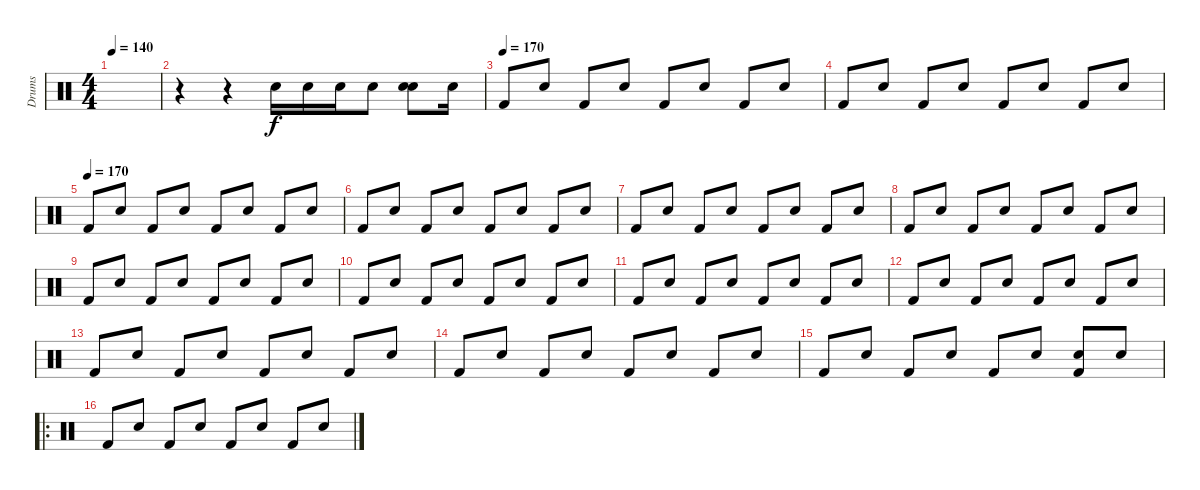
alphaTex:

\track ("Drums" "Drums") {instrument percussion}
\staff {score}
\articulation defaults
\ts (4 4)
\tempo 140
\clef neutral
\ks c
|
r.4 r.4 "Electric Snare (hit)".16 "Electric Snare (hit)".16 "Electric Snare (hit)".16 "Electric Snare (hit)".8 ("Snare (hit) 2" "Electric Snare (hit)").8 "Snare (hit) 2".16 |
\tempo (170)
"Kick (hit) 2".8 "Snare (hit) 2".8 "Kick (hit) 2".8 "Snare (hit) 2".8 "Kick (hit) 2".8 "Snare (hit) 2".8 "Kick (hit) 2".8 "Snare (hit) 2".8 |
"Kick (hit) 2".8 "Snare (hit) 2".8 "Kick (hit) 2".8 "Snare (hit) 2".8 "Kick (hit) 2".8 "Snare (hit) 2".8 "Kick (hit) 2".8 "Snare (hit) 2".8 |
\tempo (170)
"Kick (hit) 2".8 "Snare (hit) 2".8 "Kick (hit) 2".8 "Snare (hit) 2".8 "Kick (hit) 2".8 "Snare (hit) 2".8 "Kick (hit) 2".8 "Snare (hit) 2".8 |
"Kick (hit) 2".8 "Snare (hit) 2".8 "Kick (hit) 2".8 "Snare (hit) 2".8 "Kick (hit) 2".8 "Snare (hit) 2".8 "Kick (hit) 2".8 "Snare (hit) 2".8 |
"Kick (hit) 2".8 "Snare (hit) 2".8 "Kick (hit) 2".8 "Snare (hit) 2".8 "Kick (hit) 2".8 "Snare (hit) 2".8 "Kick (hit) 2".8 "Snare (hit) 2".8 |
"Kick (hit) 2".8 "Snare (hit) 2".8 "Kick (hit) 2".8 "Snare (hit) 2".8 "Kick (hit) 2".8 "Snare (hit) 2".8 "Kick (hit) 2".8 "Snare (hit) 2".8 |
"Kick (hit) 2".8 "Snare (hit) 2".8 "Kick (hit) 2".8 "Snare (hit) 2".8 "Kick (hit) 2".8 "Snare (hit) 2".8 "Kick (hit) 2".8 "Snare (hit) 2".8 |
"Kick (hit) 2".8 "Snare (hit) 2".8 "Kick (hit) 2".8 "Snare (hit) 2".8 "Kick (hit) 2".8 "Snare (hit) 2".8 "Kick (hit) 2".8 "Snare (hit) 2".8 |
"Kick (hit) 2".8 "Snare (hit) 2".8 "Kick (hit) 2".8 "Snare (hit) 2".8 "Kick (hit) 2".8 "Snare (hit) 2".8 "Kick (hit) 2".8 "Snare (hit) 2".8 |
"Kick (hit) 2".8 "Snare (hit) 2".8 "Kick (hit) 2".8 "Snare (hit) 2".8 "Kick (hit) 2".8 "Snare (hit) 2".8 "Kick (hit) 2".8 "Snare (hit) 2".8 |
"Kick (hit) 2".8 "Snare (hit) 2".8 "Kick (hit) 2".8 "Snare (hit) 2".8 "Kick (hit) 2".8 "Snare (hit) 2".8 "Kick (hit) 2".8 "Snare (hit) 2".8 |
"Kick (hit) 2".8 "Snare (hit) 2".8 "Kick (hit) 2".8 "Snare (hit) 2".8 "Kick (hit) 2".8 "Snare (hit) 2".8 "Kick (hit) 2".8 "Snare (hit) 2".8 |
"Kick (hit) 2".8 "Snare (hit) 2".8 "Kick (hit) 2".8 "Snare (hit) 2".8 "Kick (hit) 2".8 "Snare (hit) 2".8 ("Kick (hit) 2" "Snare (hit) 2").8 "Snare (hit) 2".8 |
\ro "Kick (hit) 2".8 "Snare (hit) 2".8 "Kick (hit) 2".8 "Snare (hit) 2".8 "Kick (hit) 2".8 "Snare (hit) 2".8 "Kick (hit) 2".8 "Snare (hit) 2".8
